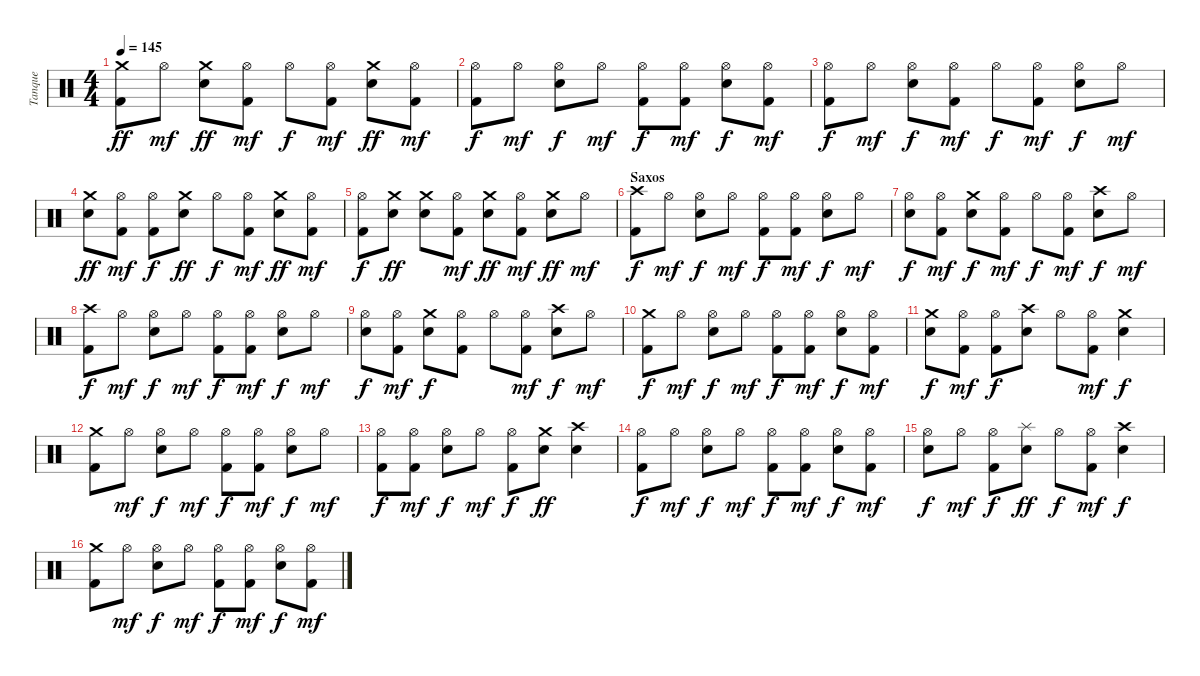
\track ("Tanque" "Tanque") {instrument percussion}
\staff {score}
\articulation defaults
\ts (4 4)
\tempo 145
\clef neutral
\ks c
("Crash medium (hit)" "Kick (hit) 2").8{dy ff} "Hi-Hat (open)".8{dy mf} ("Crash medium (hit)" "Electric Snare (hit)").8{dy ff} ("Hi-Hat (open)" "Kick (hit) 2").8{dy mf} "Hi-Hat (open)".8{dy f} ("Hi-Hat (open)" "Kick (hit) 2").8{dy mf} ("Crash medium (hit)" "Electric Snare (hit)").8{dy ff} ("Hi-Hat (open)" "Kick (hit) 2").8{dy mf} |
("Hi-Hat (open)" "Kick (hit) 2").8{dy f} "Hi-Hat (open)".8{dy mf} ("Hi-Hat (open)" "Electric Snare (hit)").8{dy f} "Hi-Hat (open)".8{dy mf} ("Hi-Hat (open)" "Kick (hit) 2").8{dy f} ("Hi-Hat (open)" "Kick (hit) 2").8{dy mf} ("Hi-Hat (open)" "Electric Snare (hit)").8{dy f} ("Hi-Hat (open)" "Kick (hit) 2").8{dy mf} |
("Hi-Hat (open)" "Kick (hit) 2").8{dy f} "Hi-Hat (open)".8{dy mf} ("Hi-Hat (open)" "Electric Snare (hit)").8{dy f} ("Hi-Hat (open)" "Kick (hit) 2").8{dy mf} "Hi-Hat (open)".8{dy f} ("Hi-Hat (open)" "Kick (hit) 2").8{dy mf} ("Hi-Hat (open)" "Electric Snare (hit)").8{dy f} "Hi-Hat (open)".8{dy mf} |
("Crash medium (hit)" "Electric Snare (hit)").8{dy ff} ("Hi-Hat (open)" "Kick (hit) 2").8{dy mf} ("Hi-Hat (open)" "Kick (hit) 2").8{dy f} ("Crash medium (hit)" "Electric Snare (hit)").8{dy ff} "Hi-Hat (open)".8{dy f} ("Hi-Hat (open)" "Kick (hit) 2").8{dy mf} ("Crash medium (hit)" "Electric Snare (hit)").8{dy ff} ("Hi-Hat (open)" "Kick (hit) 2").8{dy mf} |
("Hi-Hat (open)" "Kick (hit) 2").8{dy f} ("Crash medium (hit)" "Electric Snare (hit)").8{dy ff} ("Crash medium (hit)" "Electric Snare (hit)").8 ("Hi-Hat (open)" "Kick (hit) 2").8{dy mf} ("Crash medium (hit)" "Electric Snare (hit)").8{dy ff} ("Hi-Hat (open)" "Kick (hit) 2").8{dy mf} ("Crash medium (hit)" "Electric Snare (hit)").8{dy ff} "Hi-Hat (open)".8{dy mf} |
\section ("" "Saxos")
("Crash high (hit)" "Kick (hit) 2").8{dy f} "Hi-Hat (open)".8{dy mf} ("Hi-Hat (open)" "Electric Snare (hit)").8{dy f} "Hi-Hat (open)".8{dy mf} ("Hi-Hat (open)" "Kick (hit) 2").8{dy f} ("Hi-Hat (open)" "Kick (hit) 2").8{dy mf} ("Hi-Hat (open)" "Electric Snare (hit)").8{dy f} "Hi-Hat (open)".8{dy mf} |
("Hi-Hat (open)" "Electric Snare (hit)").8{dy f} ("Hi-Hat (open)" "Kick (hit) 2").8{dy mf} ("Crash medium (hit)" "Electric Snare (hit)").8{dy f} ("Hi-Hat (open)" "Kick (hit) 2").8{dy mf} "Hi-Hat (open)".8{dy f} ("Hi-Hat (open)" "Kick (hit) 2").8{dy mf} ("Crash high (hit)" "Electric Snare (hit)").8{dy f} "Hi-Hat (open)".8{dy mf} |
("Crash high (hit)" "Kick (hit) 2").8{dy f} "Hi-Hat (open)".8{dy mf} ("Hi-Hat (open)" "Electric Snare (hit)").8{dy f} "Hi-Hat (open)".8{dy mf} ("Hi-Hat (open)" "Kick (hit) 2").8{dy f} ("Hi-Hat (open)" "Kick (hit) 2").8{dy mf} ("Hi-Hat (open)" "Electric Snare (hit)").8{dy f} "Hi-Hat (open)".8{dy mf} |
("Hi-Hat (open)" "Electric Snare (hit)").8{dy f} ("Hi-Hat (open)" "Kick (hit) 2").8{dy mf} ("Crash medium (hit)" "Electric Snare (hit)").8{dy f} ("Hi-Hat (open)" "Kick (hit) 2").8 "Hi-Hat (open)".8 ("Hi-Hat (open)" "Kick (hit) 2").8{dy mf} ("Crash high (hit)" "Electric Snare (hit)").8{dy f} "Hi-Hat (open)".8{dy mf} |
("Crash medium (hit)" "Kick (hit) 2").8{dy f} "Hi-Hat (open)".8{dy mf} ("Hi-Hat (open)" "Electric Snare (hit)").8{dy f} "Hi-Hat (open)".8{dy mf} ("Hi-Hat (open)" "Kick (hit) 2").8{dy f} ("Hi-Hat (open)" "Kick (hit) 2").8{dy mf} ("Hi-Hat (open)" "Electric Snare (hit)").8{dy f} ("Hi-Hat (open)" "Kick (hit) 2").8{dy mf} |
("Crash medium (hit)" "Electric Snare (hit)").8{dy f} ("Hi-Hat (open)" "Kick (hit) 2").8{dy mf} ("Hi-Hat (open)" "Kick (hit) 2").8{dy f} ("Crash high (hit)" "Electric Snare (hit)").8 "Hi-Hat (open)".8 ("Hi-Hat (open)" "Kick (hit) 2").8{dy mf} ("Crash medium (hit)" "Electric Snare (hit)").4{dy f} |
("Crash medium (hit)" "Kick (hit) 2").8 "Hi-Hat (open)".8{dy mf} ("Hi-Hat (open)" "Electric Snare (hit)").8{dy f} "Hi-Hat (open)".8{dy mf} ("Hi-Hat (open)" "Kick (hit) 2").8{dy f} ("Hi-Hat (open)" "Kick (hit) 2").8{dy mf} ("Hi-Hat (open)" "Electric Snare (hit)").8{dy f} "Hi-Hat (open)".8{dy mf} |
("Hi-Hat (open)" "Kick (hit) 2").8{dy f} ("Hi-Hat (open)" "Kick (hit) 2").8{dy mf} ("Hi-Hat (open)" "Electric Snare (hit)").8{dy f} "Hi-Hat (open)".8{dy mf} ("Hi-Hat (open)" "Kick (hit) 2").8{dy f} ("Crash medium (hit)" "Electric Snare (hit)").8{dy ff} ("Crash high (hit)" "Electric Snare (hit)").4 |
("Hi-Hat (open)" "Kick (hit) 2").8{dy f} "Hi-Hat (open)".8{dy mf} ("Hi-Hat (open)" "Electric Snare (hit)").8{dy f} "Hi-Hat (open)".8{dy mf} ("Hi-Hat (open)" "Kick (hit) 2").8{dy f} ("Hi-Hat (open)" "Kick (hit) 2").8{dy mf} ("Hi-Hat (open)" "Electric Snare (hit)").8{dy f} ("Hi-Hat (open)" "Kick (hit) 2").8{dy mf} |
("Hi-Hat (open)" "Electric Snare (hit)").8{dy f} "Hi-Hat (open)".8{dy mf} ("Hi-Hat (open)" "Kick (hit) 2").8{dy f} ("Splash (hit)" "Electric Snare (hit)").8{dy ff} "Hi-Hat (open)".8{dy f} ("Hi-Hat (open)" "Kick (hit) 2").8{dy mf} ("Crash high (hit)" "Electric Snare (hit)").4{dy f} |
("Crash medium (hit)" "Kick (hit) 2").8 "Hi-Hat (open)".8{dy mf} ("Hi-Hat (open)" "Electric Snare (hit)").8{dy f} "Hi-Hat (open)".8{dy mf} ("Hi-Hat (open)" "Kick (hit) 2").8{dy f} ("Hi-Hat (open)" "Kick (hit) 2").8{dy mf} ("Hi-Hat (open)" "Electric Snare (hit)").8{dy f} ("Hi-Hat (open)" "Kick (hit) 2").8{dy mf}
